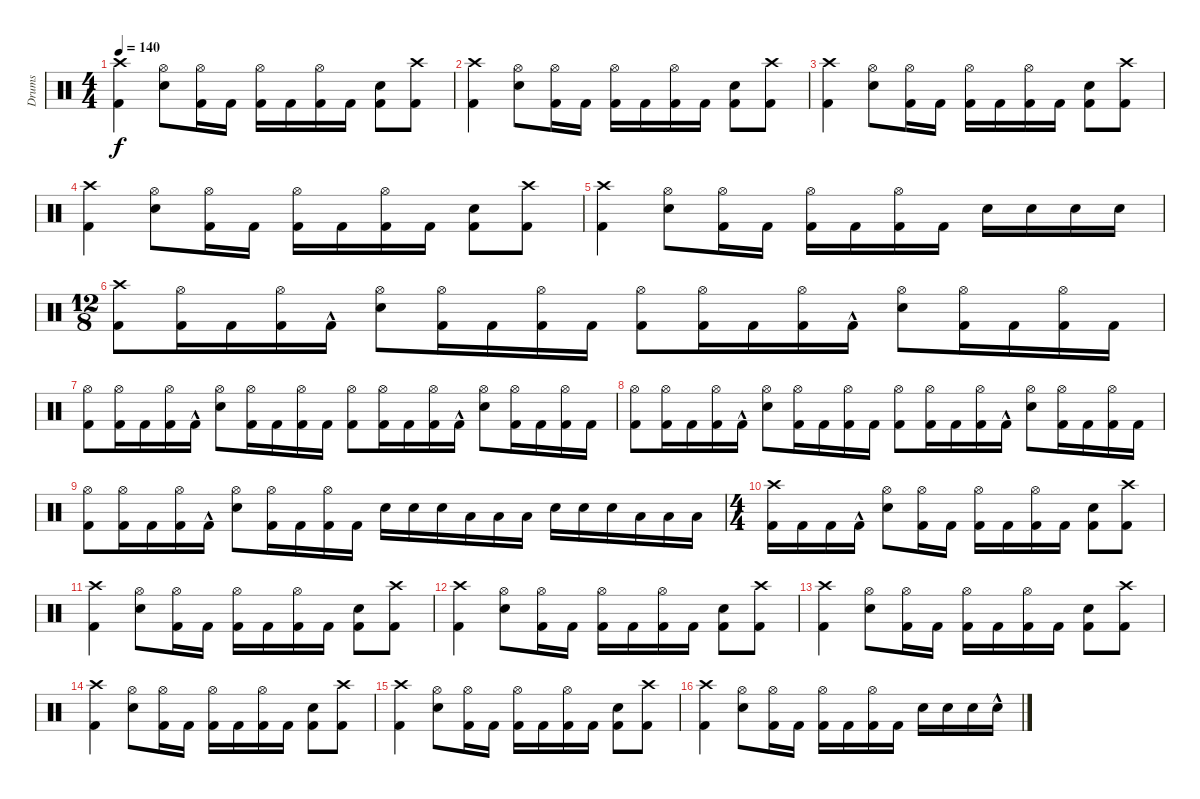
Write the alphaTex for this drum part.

\track ("Drums" "Drums") {instrument percussion}
\staff {score}
\articulation defaults
\ts (4 4)
\tempo 140
\clef neutral
\ks c
("Kick (hit) 2" "Crash high (hit)").4{dy f} ("Snare (hit) 2" "Hi-Hat (open)").8 ("Kick (hit) 2" "Hi-Hat (open)").16 "Kick (hit) 2".16 ("Hi-Hat (open)" "Kick (hit) 2").16 "Kick (hit) 2".16 ("Hi-Hat (open)" "Kick (hit) 2").16 "Kick (hit) 2".16 ("Snare (hit) 2" "Kick (hit) 2").8 ("Kick (hit) 2" "Crash high (hit)").8 |
("Kick (hit) 2" "Crash high (hit)").4 ("Snare (hit) 2" "Hi-Hat (open)").8 ("Kick (hit) 2" "Hi-Hat (open)").16 "Kick (hit) 2".16 ("Hi-Hat (open)" "Kick (hit) 2").16 "Kick (hit) 2".16 ("Hi-Hat (open)" "Kick (hit) 2").16 "Kick (hit) 2".16 ("Snare (hit) 2" "Kick (hit) 2").8 ("Kick (hit) 2" "Crash high (hit)").8 |
("Kick (hit) 2" "Crash high (hit)").4 ("Snare (hit) 2" "Hi-Hat (open)").8 ("Kick (hit) 2" "Hi-Hat (open)").16 "Kick (hit) 2".16 ("Hi-Hat (open)" "Kick (hit) 2").16 "Kick (hit) 2".16 ("Hi-Hat (open)" "Kick (hit) 2").16 "Kick (hit) 2".16 ("Snare (hit) 2" "Kick (hit) 2").8 ("Kick (hit) 2" "Crash high (hit)").8 |
("Kick (hit) 2" "Crash high (hit)").4 ("Snare (hit) 2" "Hi-Hat (open)").8 ("Kick (hit) 2" "Hi-Hat (open)").16 "Kick (hit) 2".16 ("Hi-Hat (open)" "Kick (hit) 2").16 "Kick (hit) 2".16 ("Hi-Hat (open)" "Kick (hit) 2").16 "Kick (hit) 2".16 ("Snare (hit) 2" "Kick (hit) 2").8 ("Kick (hit) 2" "Crash high (hit)").8 |
("Kick (hit) 2" "Crash high (hit)").4 ("Snare (hit) 2" "Hi-Hat (open)").8 ("Kick (hit) 2" "Hi-Hat (open)").16 "Kick (hit) 2".16 ("Hi-Hat (open)" "Kick (hit) 2").16 "Kick (hit) 2".16 ("Hi-Hat (open)" "Kick (hit) 2").16 "Kick (hit) 2".16 "Snare (hit) 2".16 "Snare (hit) 2".16 "Snare (hit) 2".16 "Snare (hit) 2".16 |
\ts (12 8)
("Kick (hit) 2" "Crash high (hit)").8 ("Kick (hit) 2" "Hi-Hat (open)").16 "Kick (hit) 2".16 ("Hi-Hat (open)" "Kick (hit) 2").16 "Kick (hit) 2"{hac}.16 ("Hi-Hat (open)" "Snare (hit) 2").8 ("Kick (hit) 2" "Hi-Hat (open)").16 "Kick (hit) 2".16 ("Hi-Hat (open)" "Kick (hit) 2").16 "Kick (hit) 2".16 ("Hi-Hat (open)" "Kick (hit) 2").8 ("Kick (hit) 2" "Hi-Hat (open)").16 "Kick (hit) 2".16 ("Hi-Hat (open)" "Kick (hit) 2").16 "Kick (hit) 2"{hac}.16 ("Hi-Hat (open)" "Snare (hit) 2").8 ("Kick (hit) 2" "Hi-Hat (open)").16 "Kick (hit) 2".16 ("Hi-Hat (open)" "Kick (hit) 2").16 "Kick (hit) 2".16 |
("Hi-Hat (open)" "Kick (hit) 2").8 ("Kick (hit) 2" "Hi-Hat (open)").16 "Kick (hit) 2".16 ("Hi-Hat (open)" "Kick (hit) 2").16 "Kick (hit) 2"{hac}.16 ("Hi-Hat (open)" "Snare (hit) 2").8 ("Kick (hit) 2" "Hi-Hat (open)").16 "Kick (hit) 2".16 ("Hi-Hat (open)" "Kick (hit) 2").16 "Kick (hit) 2".16 ("Hi-Hat (open)" "Kick (hit) 2").8 ("Kick (hit) 2" "Hi-Hat (open)").16 "Kick (hit) 2".16 ("Hi-Hat (open)" "Kick (hit) 2").16 "Kick (hit) 2"{hac}.16 ("Hi-Hat (open)" "Snare (hit) 2").8 ("Kick (hit) 2" "Hi-Hat (open)").16 "Kick (hit) 2".16 ("Hi-Hat (open)" "Kick (hit) 2").16 "Kick (hit) 2".16 |
("Hi-Hat (open)" "Kick (hit) 2").8 ("Kick (hit) 2" "Hi-Hat (open)").16 "Kick (hit) 2".16 ("Hi-Hat (open)" "Kick (hit) 2").16 "Kick (hit) 2"{hac}.16 ("Hi-Hat (open)" "Snare (hit) 2").8 ("Kick (hit) 2" "Hi-Hat (open)").16 "Kick (hit) 2".16 ("Hi-Hat (open)" "Kick (hit) 2").16 "Kick (hit) 2".16 ("Hi-Hat (open)" "Kick (hit) 2").8 ("Kick (hit) 2" "Hi-Hat (open)").16 "Kick (hit) 2".16 ("Hi-Hat (open)" "Kick (hit) 2").16 "Kick (hit) 2"{hac}.16 ("Hi-Hat (open)" "Snare (hit) 2").8 ("Kick (hit) 2" "Hi-Hat (open)").16 "Kick (hit) 2".16 ("Hi-Hat (open)" "Kick (hit) 2").16 "Kick (hit) 2".16 |
("Hi-Hat (open)" "Kick (hit) 2").8 ("Kick (hit) 2" "Hi-Hat (open)").16 "Kick (hit) 2".16 ("Hi-Hat (open)" "Kick (hit) 2").16 "Kick (hit) 2"{hac}.16 ("Hi-Hat (open)" "Snare (hit) 2").8 ("Kick (hit) 2" "Hi-Hat (open)").16 "Kick (hit) 2".16 ("Hi-Hat (open)" "Kick (hit) 2").16 "Kick (hit) 2".16 "Snare (hit) 2".16 "Snare (hit) 2".16 "Snare (hit) 2".16 "Low Tom (hit)".16 "Low Tom (hit)".16 "Low Tom (hit)".16 "Snare (hit) 2".16 "Snare (hit) 2".16 "Snare (hit) 2".16 "Low Tom (hit)".16 "Low Tom (hit)".16 "Low Tom (hit)".16 |
\ts (4 4)
("Crash high (hit)" "Kick (hit) 2").16 "Kick (hit) 2".16 "Kick (hit) 2".16 "Kick (hit) 2"{hac}.16 ("Hi-Hat (open)" "Snare (hit) 2").8 ("Hi-Hat (open)" "Kick (hit) 2").16 "Kick (hit) 2".16 ("Kick (hit) 2" "Hi-Hat (open)").16 "Kick (hit) 2".16 ("Kick (hit) 2" "Hi-Hat (open)").16 "Kick (hit) 2".16 ("Kick (hit) 2" "Snare (hit) 2").8 ("Crash high (hit)" "Kick (hit) 2").8 |
("Kick (hit) 2" "Crash high (hit)").4 ("Snare (hit) 2" "Hi-Hat (open)").8 ("Kick (hit) 2" "Hi-Hat (open)").16 "Kick (hit) 2".16 ("Hi-Hat (open)" "Kick (hit) 2").16 "Kick (hit) 2".16 ("Hi-Hat (open)" "Kick (hit) 2").16 "Kick (hit) 2".16 ("Snare (hit) 2" "Kick (hit) 2").8 ("Kick (hit) 2" "Crash high (hit)").8 |
("Kick (hit) 2" "Crash high (hit)").4 ("Snare (hit) 2" "Hi-Hat (open)").8 ("Kick (hit) 2" "Hi-Hat (open)").16 "Kick (hit) 2".16 ("Hi-Hat (open)" "Kick (hit) 2").16 "Kick (hit) 2".16 ("Hi-Hat (open)" "Kick (hit) 2").16 "Kick (hit) 2".16 ("Snare (hit) 2" "Kick (hit) 2").8 ("Kick (hit) 2" "Crash high (hit)").8 |
("Kick (hit) 2" "Crash high (hit)").4 ("Snare (hit) 2" "Hi-Hat (open)").8 ("Kick (hit) 2" "Hi-Hat (open)").16 "Kick (hit) 2".16 ("Hi-Hat (open)" "Kick (hit) 2").16 "Kick (hit) 2".16 ("Hi-Hat (open)" "Kick (hit) 2").16 "Kick (hit) 2".16 ("Snare (hit) 2" "Kick (hit) 2").8 ("Kick (hit) 2" "Crash high (hit)").8 |
("Kick (hit) 2" "Crash high (hit)").4 ("Snare (hit) 2" "Hi-Hat (open)").8 ("Kick (hit) 2" "Hi-Hat (open)").16 "Kick (hit) 2".16 ("Hi-Hat (open)" "Kick (hit) 2").16 "Kick (hit) 2".16 ("Hi-Hat (open)" "Kick (hit) 2").16 "Kick (hit) 2".16 ("Snare (hit) 2" "Kick (hit) 2").8 ("Kick (hit) 2" "Crash high (hit)").8 |
("Kick (hit) 2" "Crash high (hit)").4 ("Snare (hit) 2" "Hi-Hat (open)").8 ("Kick (hit) 2" "Hi-Hat (open)").16 "Kick (hit) 2".16 ("Hi-Hat (open)" "Kick (hit) 2").16 "Kick (hit) 2".16 ("Hi-Hat (open)" "Kick (hit) 2").16 "Kick (hit) 2".16 ("Snare (hit) 2" "Kick (hit) 2").8 ("Kick (hit) 2" "Crash high (hit)").8 |
("Kick (hit) 2" "Crash high (hit)").4 ("Snare (hit) 2" "Hi-Hat (open)").8 ("Kick (hit) 2" "Hi-Hat (open)").16 "Kick (hit) 2".16 ("Hi-Hat (open)" "Kick (hit) 2").16 "Kick (hit) 2".16 ("Hi-Hat (open)" "Kick (hit) 2").16 "Kick (hit) 2".16 "Snare (hit) 2".16 "Snare (hit) 2".16 "Snare (hit) 2".16 "Snare (hit) 2"{hac}.16
